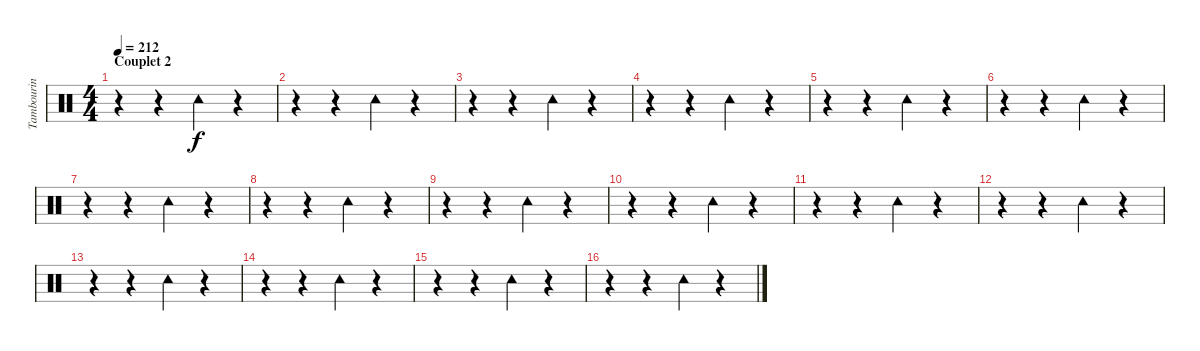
\track ("Tambourin" "Tambourin") {instrument percussion}
\staff {score}
\articulation defaults
\ts (4 4)
\section ("" "Couplet 2")
\tempo 212
\clef neutral
\ks c
r.4{dy f} r.4 "Tambourine (hit)".4 r.4 |
r.4 r.4 "Tambourine (hit)".4 r.4 |
r.4 r.4 "Tambourine (hit)".4 r.4 |
r.4 r.4 "Tambourine (hit)".4 r.4 |
r.4 r.4 "Tambourine (hit)".4 r.4 |
r.4 r.4 "Tambourine (hit)".4 r.4 |
r.4 r.4 "Tambourine (hit)".4 r.4 |
r.4 r.4 "Tambourine (hit)".4 r.4 |
r.4 r.4 "Tambourine (hit)".4 r.4 |
r.4 r.4 "Tambourine (hit)".4 r.4 |
r.4 r.4 "Tambourine (hit)".4 r.4 |
r.4 r.4 "Tambourine (hit)".4 r.4 |
r.4 r.4 "Tambourine (hit)".4 r.4 |
r.4 r.4 "Tambourine (hit)".4 r.4 |
r.4 r.4 "Tambourine (hit)".4 r.4 |
r.4 r.4 "Tambourine (hit)".4 r.4
